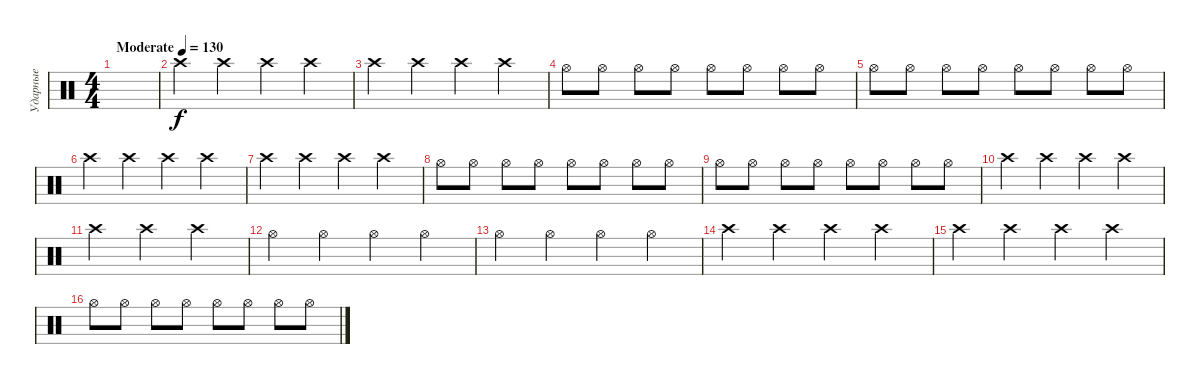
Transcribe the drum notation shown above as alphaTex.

\track ("Ударные" "Ударные") {instrument percussion}
\staff {score}
\articulation defaults
\ts (4 4)
\tempo (130 "Moderate")
\clef neutral
\ks c
|
"Crash high (hit)".4 "Crash high (hit)".4 "Crash high (hit)".4 "Crash high (hit)".4 |
"Crash high (hit)".4 "Crash high (hit)".4 "Crash high (hit)".4 "Crash high (hit)".4 |
"Hi-Hat (open)".8 "Hi-Hat (open)".8 "Hi-Hat (open)".8 "Hi-Hat (open)".8 "Hi-Hat (open)".8 "Hi-Hat (open)".8 "Hi-Hat (open)".8 "Hi-Hat (open)".8 |
"Hi-Hat (open)".8 "Hi-Hat (open)".8 "Hi-Hat (open)".8 "Hi-Hat (open)".8 "Hi-Hat (open)".8 "Hi-Hat (open)".8 "Hi-Hat (open)".8 "Hi-Hat (open)".8 |
"Crash high (hit)".4 "Crash high (hit)".4 "Crash high (hit)".4 "Crash high (hit)".4 |
"Crash high (hit)".4 "Crash high (hit)".4 "Crash high (hit)".4 "Crash high (hit)".4 |
"Hi-Hat (open)".8 "Hi-Hat (open)".8 "Hi-Hat (open)".8 "Hi-Hat (open)".8 "Hi-Hat (open)".8 "Hi-Hat (open)".8 "Hi-Hat (open)".8 "Hi-Hat (open)".8 |
"Hi-Hat (open)".8 "Hi-Hat (open)".8 "Hi-Hat (open)".8 "Hi-Hat (open)".8 "Hi-Hat (open)".8 "Hi-Hat (open)".8 "Hi-Hat (open)".8 "Hi-Hat (open)".8 |
"Crash high (hit)".4 "Crash high (hit)".4 "Crash high (hit)".4 "Crash high (hit)".4 |
"Crash high (hit)".4 "Crash high (hit)".4 "Crash high (hit)".4 |
"Hi-Hat (open)".4 "Hi-Hat (open)".4 "Hi-Hat (open)".4 "Hi-Hat (open)".4 |
"Hi-Hat (open)".4 "Hi-Hat (open)".4 "Hi-Hat (open)".4 "Hi-Hat (open)".4 |
"Crash high (hit)".4 "Crash high (hit)".4 "Crash high (hit)".4 "Crash high (hit)".4 |
"Crash high (hit)".4 "Crash high (hit)".4 "Crash high (hit)".4 "Crash high (hit)".4 |
"Hi-Hat (open)".8 "Hi-Hat (open)".8 "Hi-Hat (open)".8 "Hi-Hat (open)".8 "Hi-Hat (open)".8 "Hi-Hat (open)".8 "Hi-Hat (open)".8 "Hi-Hat (open)".8
